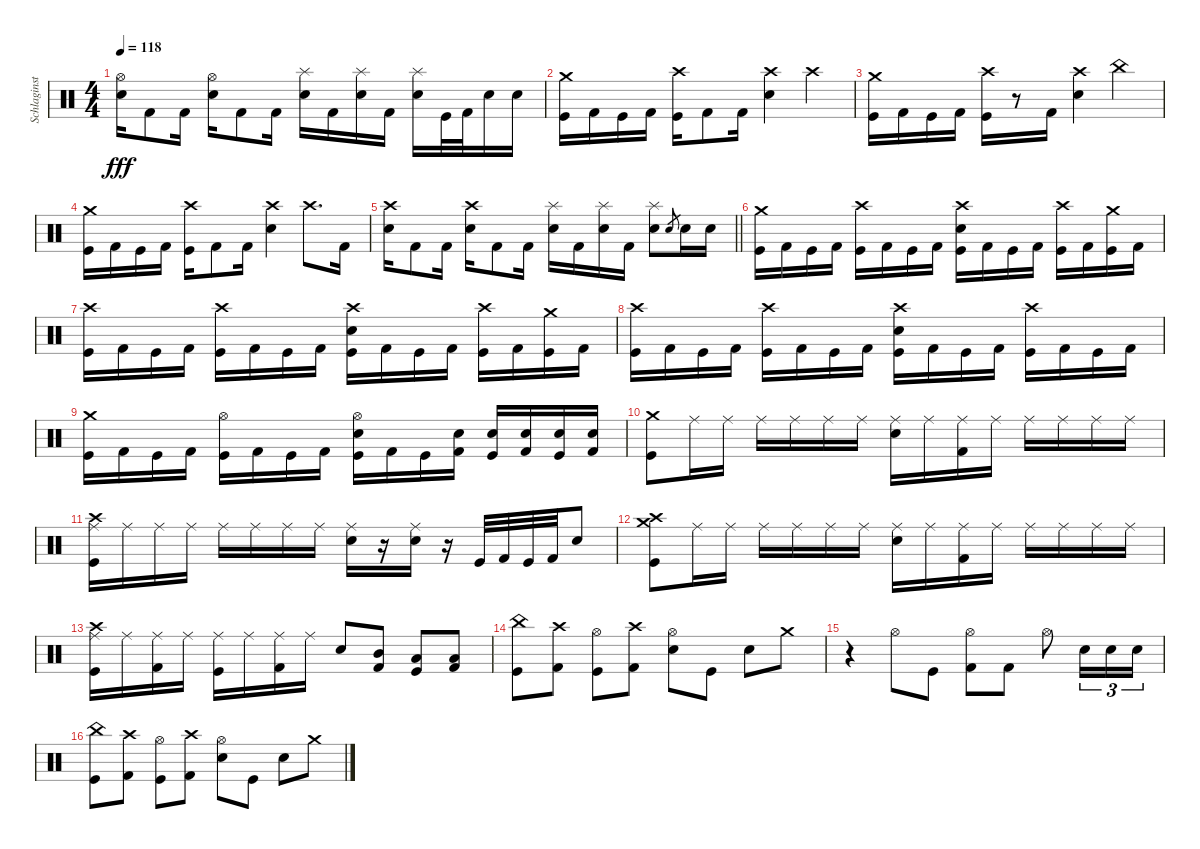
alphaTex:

\track ("Schlaginstrumente - Auswahl" "Schlaginst") {instrument percussion}
\staff {score}
\articulation defaults
\ts (4 4)
\tempo 118
\clef neutral
\ks c
("Hi-Hat (open)" "Snare (hit) 2").16{dy fff} "Kick (hit) 2".8 "Kick (hit) 2".16 ("Hi-Hat (open)" "Snare (hit) 2").16 "Kick (hit) 2".8 "Kick (hit) 2".16 ("Splash (hit)" "Snare (hit) 2").16 "Kick (hit) 2".16 ("Splash (hit)" "Snare (hit) 2").16 "Kick (hit) 2".16 ("Splash (hit)" "Snare (hit) 2").16 "Kick (hit)".32 "Kick (hit) 2".32 "Snare (hit) 2".16 "Snare (hit) 2".16 |
("Crash medium (hit)" "Kick (hit)").16 "Kick (hit) 2".16 "Kick (hit)".16 "Kick (hit) 2".16 ("Crash high (hit)" "Kick (hit)").16 "Kick (hit) 2".8 "Kick (hit) 2".16 ("Crash high (hit)" "Snare (hit) 2").4 "Crash high (hit)".4 |
("Crash medium (hit)" "Kick (hit)").16 "Kick (hit) 2".16 "Kick (hit)".16 "Kick (hit) 2".16 ("Crash high (hit)" "Kick (hit)").16 r.8 "Kick (hit) 2".16 ("Crash high (hit)" "Snare (hit) 2").4 "China (hit)".4 |
("Crash medium (hit)" "Kick (hit)").16 "Kick (hit) 2".16 "Kick (hit)".16 "Kick (hit) 2".16 ("Crash high (hit)" "Kick (hit)").16 "Kick (hit) 2".8 "Kick (hit) 2".16 ("Crash high (hit)" "Snare (hit) 2").4 "Crash high (hit)".8{d} "Kick (hit) 2".16 |
\barLineRight lightlight
("Crash high (hit)" "Snare (hit) 2").16 "Kick (hit) 2".8 "Kick (hit) 2".16 ("Crash high (hit)" "Snare (hit) 2").16 "Kick (hit) 2".8 "Kick (hit) 2".16 ("Splash (hit)" "Snare (hit) 2").16 "Kick (hit) 2".16 ("Splash (hit)" "Snare (hit) 2").16 "Kick (hit) 2".16 ("Splash (hit)" "Snare (hit) 2").8 "Snare (hit) 2".8{gr} "Snare (hit) 2".16 "Snare (hit) 2".16 |
("Crash medium (hit)" "Kick (hit)").16 "Kick (hit) 2".16 "Kick (hit)".16 "Kick (hit) 2".16 ("Crash high (hit)" "Kick (hit)").16 "Kick (hit) 2".16 "Kick (hit)".16 "Kick (hit) 2".16 ("Crash high (hit)" "Snare (hit) 2" "Kick (hit)").16 "Kick (hit) 2".16 "Kick (hit)".16 "Kick (hit) 2".16 ("Crash high (hit)" "Kick (hit)").16 "Kick (hit) 2".16 ("Crash medium (hit)" "Kick (hit)").16 "Kick (hit) 2".16 |
("Crash high (hit)" "Kick (hit)").16 "Kick (hit) 2".16 "Kick (hit)".16 "Kick (hit) 2".16 ("Crash high (hit)" "Kick (hit)").16 "Kick (hit) 2".16 "Kick (hit)".16 "Kick (hit) 2".16 ("Crash high (hit)" "Snare (hit) 2" "Kick (hit)").16 "Kick (hit) 2".16 "Kick (hit)".16 "Kick (hit) 2".16 ("Crash high (hit)" "Kick (hit)").16 "Kick (hit) 2".16 ("Crash medium (hit)" "Kick (hit)").16 "Kick (hit) 2".16 |
("Crash high (hit)" "Kick (hit)").16 "Kick (hit) 2".16 "Kick (hit)".16 "Kick (hit) 2".16 ("Crash high (hit)" "Kick (hit)").16 "Kick (hit) 2".16 "Kick (hit)".16 "Kick (hit) 2".16 ("Crash high (hit)" "Snare (hit) 2" "Kick (hit)").16 "Kick (hit) 2".16 "Kick (hit)".16 "Kick (hit) 2".16 ("Crash high (hit)" "Kick (hit)").16 "Kick (hit) 2".16 "Kick (hit)".16 "Kick (hit) 2".16 |
("Crash medium (hit)" "Kick (hit)").16 "Kick (hit) 2".16 "Kick (hit)".16 "Kick (hit) 2".16 ("Hi-Hat (open)" "Kick (hit)").16 "Kick (hit) 2".16 "Kick (hit)".16 "Kick (hit) 2".16 ("Hi-Hat (open)" "Snare (hit) 2" "Kick (hit)").16 "Kick (hit) 2".16 "Kick (hit)".16 ("Snare (hit) 2" "Kick (hit) 2").16 ("Snare (hit) 2" "Kick (hit)").16 ("Snare (hit) 2" "Kick (hit) 2").16 ("Snare (hit) 2" "Kick (hit)").16 ("Snare (hit) 2" "Kick (hit) 2").16 |
("Crash medium (hit)" "Kick (hit)").8 "Ride (middle)".16 "Ride (middle)".16 "Ride (middle)".16 "Ride (middle)".16 "Ride (middle)".16 "Ride (middle)".16 ("Ride (middle)" "Snare (hit) 2").16 "Ride (middle)".16 ("Ride (middle)" "Kick (hit) 2").16 "Ride (middle)".16 "Ride (middle)".16 "Ride (middle)".16 "Ride (middle)".16 "Ride (middle)".16 |
("Crash high (hit)" "Ride (middle)" "Kick (hit)").16 "Ride (middle)".16 "Ride (middle)".16 "Ride (middle)".16 "Ride (middle)".16 "Ride (middle)".16 "Ride (middle)".16 "Ride (middle)".16 ("Ride (middle)" "Snare (hit) 2").16 r.16 ("Ride (middle)" "Snare (hit) 2").16 r.16 "Kick (hit)".32 "Kick (hit) 2".32 "Kick (hit)".32 "Kick (hit) 2".32 "Snare (hit) 2".8 |
("Crash high (hit)" "Crash medium (hit)" "Kick (hit)").8 "Ride (middle)".16 "Ride (middle)".16 "Ride (middle)".16 "Ride (middle)".16 "Ride (middle)".16 "Ride (middle)".16 ("Ride (middle)" "Snare (hit) 2").16 "Ride (middle)".16 ("Ride (middle)" "Kick (hit) 2").16 "Ride (middle)".16 "Ride (middle)".16 "Ride (middle)".16 "Ride (middle)".16 "Ride (middle)".16 |
("Crash high (hit)" "Ride (middle)" "Kick (hit)").16 "Ride (middle)".16 ("Ride (middle)" "Kick (hit) 2").16 "Ride (middle)".16 ("Ride (middle)" "Kick (hit)").16 "Ride (middle)".16 ("Ride (middle)" "Kick (hit) 2").16 "Ride (middle)".16 "Snare (hit) 2".8 ("Mid Tom (hit)" "Kick (hit) 2").8 ("Low Tom (hit)" "Kick (hit)").8 ("Low Tom (hit)" "Kick (hit) 2").8 |
("China (hit)" "Kick (hit)").8 ("Crash high (hit)" "Kick (hit) 2").8 ("Hi-Hat (open)" "Kick (hit)").8 ("Crash high (hit)" "Kick (hit) 2").8 ("Hi-Hat (open)" "Snare (hit) 2").8 "Kick (hit)".8 "Snare (hit) 2".8 "Crash medium (hit)".8 |
r.4 "Hi-Hat (open)".8 "Kick (hit)".8 ("Hi-Hat (open)" "Kick (hit) 2").8 "Kick (hit) 2".8 "Hi-Hat (open)".8 "Snare (hit) 2".16{tu (3 2)} "Snare (hit) 2".16{tu (3 2)} "Snare (hit) 2".16{tu (3 2)} |
("China (hit)" "Kick (hit)").8 ("Crash high (hit)" "Kick (hit) 2").8 ("Hi-Hat (open)" "Kick (hit)").8 ("Crash high (hit)" "Kick (hit) 2").8 ("Hi-Hat (open)" "Snare (hit) 2").8 "Kick (hit)".8 "Snare (hit) 2".8 "Crash medium (hit)".8
